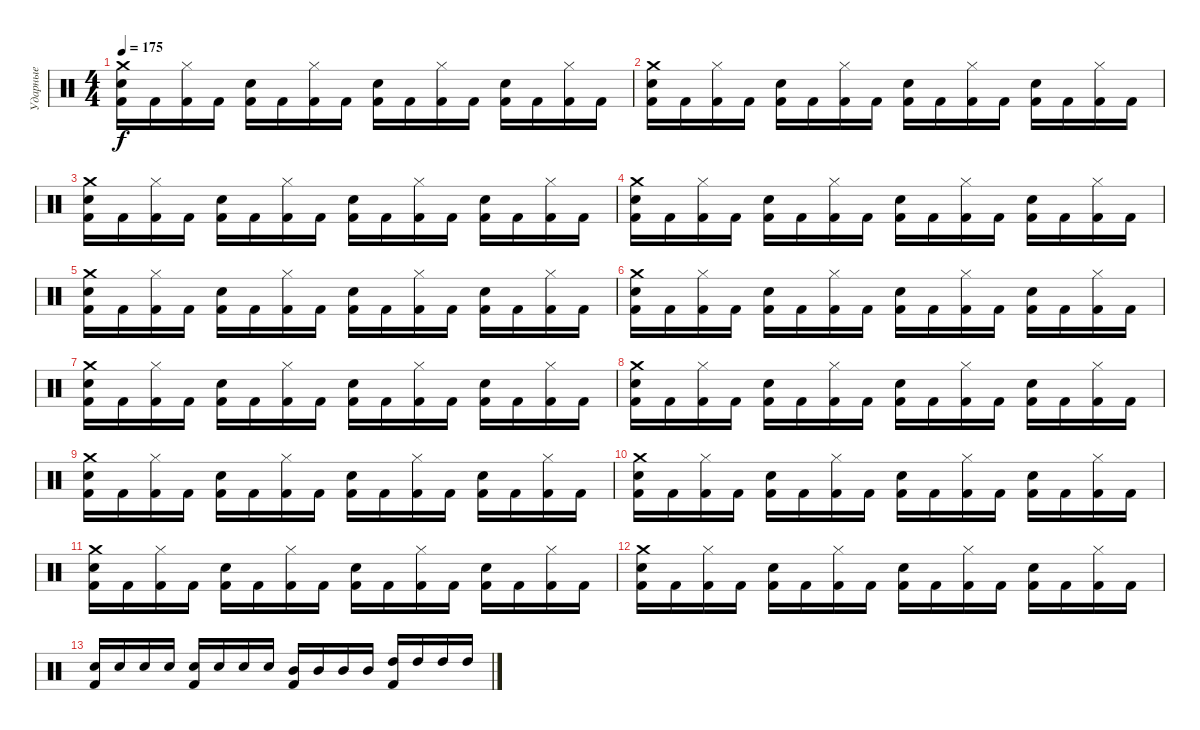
\track ("Ударные" "Ударные") {instrument percussion}
\staff {score}
\articulation defaults
\ts (4 4)
\tempo 175
\clef neutral
\ks c
("Kick (hit) 2" "Snare (hit) 2" "Crash medium (hit)").16{dy f} "Kick (hit) 2".16 ("Kick (hit) 2" "Hi-Hat (closed)").16 "Kick (hit) 2".16 ("Kick (hit) 2" "Snare (hit) 2").16 "Kick (hit) 2".16 ("Kick (hit) 2" "Hi-Hat (closed)").16 "Kick (hit) 2".16 ("Kick (hit) 2" "Snare (hit) 2").16 "Kick (hit) 2".16 ("Kick (hit) 2" "Hi-Hat (closed)").16 "Kick (hit) 2".16 ("Kick (hit) 2" "Snare (hit) 2").16 "Kick (hit) 2".16 ("Kick (hit) 2" "Hi-Hat (closed)").16 "Kick (hit) 2".16 |
("Kick (hit) 2" "Snare (hit) 2" "Crash medium (hit)").16 "Kick (hit) 2".16 ("Kick (hit) 2" "Hi-Hat (closed)").16 "Kick (hit) 2".16 ("Kick (hit) 2" "Snare (hit) 2").16 "Kick (hit) 2".16 ("Kick (hit) 2" "Hi-Hat (closed)").16 "Kick (hit) 2".16 ("Kick (hit) 2" "Snare (hit) 2").16 "Kick (hit) 2".16 ("Kick (hit) 2" "Hi-Hat (closed)").16 "Kick (hit) 2".16 ("Kick (hit) 2" "Snare (hit) 2").16 "Kick (hit) 2".16 ("Kick (hit) 2" "Hi-Hat (closed)").16 "Kick (hit) 2".16 |
("Kick (hit) 2" "Snare (hit) 2" "Crash medium (hit)").16 "Kick (hit) 2".16 ("Kick (hit) 2" "Hi-Hat (closed)").16 "Kick (hit) 2".16 ("Kick (hit) 2" "Snare (hit) 2").16 "Kick (hit) 2".16 ("Kick (hit) 2" "Hi-Hat (closed)").16 "Kick (hit) 2".16 ("Kick (hit) 2" "Snare (hit) 2").16 "Kick (hit) 2".16 ("Kick (hit) 2" "Hi-Hat (closed)").16 "Kick (hit) 2".16 ("Kick (hit) 2" "Snare (hit) 2").16 "Kick (hit) 2".16 ("Kick (hit) 2" "Hi-Hat (closed)").16 "Kick (hit) 2".16 |
("Kick (hit) 2" "Snare (hit) 2" "Crash medium (hit)").16 "Kick (hit) 2".16 ("Kick (hit) 2" "Hi-Hat (closed)").16 "Kick (hit) 2".16 ("Kick (hit) 2" "Snare (hit) 2").16 "Kick (hit) 2".16 ("Kick (hit) 2" "Hi-Hat (closed)").16 "Kick (hit) 2".16 ("Kick (hit) 2" "Snare (hit) 2").16 "Kick (hit) 2".16 ("Kick (hit) 2" "Hi-Hat (closed)").16 "Kick (hit) 2".16 ("Kick (hit) 2" "Snare (hit) 2").16 "Kick (hit) 2".16 ("Kick (hit) 2" "Hi-Hat (closed)").16 "Kick (hit) 2".16 |
("Kick (hit) 2" "Snare (hit) 2" "Crash medium (hit)").16 "Kick (hit) 2".16 ("Kick (hit) 2" "Hi-Hat (closed)").16 "Kick (hit) 2".16 ("Kick (hit) 2" "Snare (hit) 2").16 "Kick (hit) 2".16 ("Kick (hit) 2" "Hi-Hat (closed)").16 "Kick (hit) 2".16 ("Kick (hit) 2" "Snare (hit) 2").16 "Kick (hit) 2".16 ("Kick (hit) 2" "Hi-Hat (closed)").16 "Kick (hit) 2".16 ("Kick (hit) 2" "Snare (hit) 2").16 "Kick (hit) 2".16 ("Kick (hit) 2" "Hi-Hat (closed)").16 "Kick (hit) 2".16 |
("Kick (hit) 2" "Snare (hit) 2" "Crash medium (hit)").16 "Kick (hit) 2".16 ("Kick (hit) 2" "Hi-Hat (closed)").16 "Kick (hit) 2".16 ("Kick (hit) 2" "Snare (hit) 2").16 "Kick (hit) 2".16 ("Kick (hit) 2" "Hi-Hat (closed)").16 "Kick (hit) 2".16 ("Kick (hit) 2" "Snare (hit) 2").16 "Kick (hit) 2".16 ("Kick (hit) 2" "Hi-Hat (closed)").16 "Kick (hit) 2".16 ("Kick (hit) 2" "Snare (hit) 2").16 "Kick (hit) 2".16 ("Kick (hit) 2" "Hi-Hat (closed)").16 "Kick (hit) 2".16 |
("Kick (hit) 2" "Snare (hit) 2" "Crash medium (hit)").16 "Kick (hit) 2".16 ("Kick (hit) 2" "Hi-Hat (closed)").16 "Kick (hit) 2".16 ("Kick (hit) 2" "Snare (hit) 2").16 "Kick (hit) 2".16 ("Kick (hit) 2" "Hi-Hat (closed)").16 "Kick (hit) 2".16 ("Kick (hit) 2" "Snare (hit) 2").16 "Kick (hit) 2".16 ("Kick (hit) 2" "Hi-Hat (closed)").16 "Kick (hit) 2".16 ("Kick (hit) 2" "Snare (hit) 2").16 "Kick (hit) 2".16 ("Kick (hit) 2" "Hi-Hat (closed)").16 "Kick (hit) 2".16 |
("Kick (hit) 2" "Snare (hit) 2" "Crash medium (hit)").16 "Kick (hit) 2".16 ("Kick (hit) 2" "Hi-Hat (closed)").16 "Kick (hit) 2".16 ("Kick (hit) 2" "Snare (hit) 2").16 "Kick (hit) 2".16 ("Kick (hit) 2" "Hi-Hat (closed)").16 "Kick (hit) 2".16 ("Kick (hit) 2" "Snare (hit) 2").16 "Kick (hit) 2".16 ("Kick (hit) 2" "Hi-Hat (closed)").16 "Kick (hit) 2".16 ("Kick (hit) 2" "Snare (hit) 2").16 "Kick (hit) 2".16 ("Kick (hit) 2" "Hi-Hat (closed)").16 "Kick (hit) 2".16 |
("Kick (hit) 2" "Snare (hit) 2" "Crash medium (hit)").16 "Kick (hit) 2".16 ("Kick (hit) 2" "Hi-Hat (closed)").16 "Kick (hit) 2".16 ("Kick (hit) 2" "Snare (hit) 2").16 "Kick (hit) 2".16 ("Kick (hit) 2" "Hi-Hat (closed)").16 "Kick (hit) 2".16 ("Kick (hit) 2" "Snare (hit) 2").16 "Kick (hit) 2".16 ("Kick (hit) 2" "Hi-Hat (closed)").16 "Kick (hit) 2".16 ("Kick (hit) 2" "Snare (hit) 2").16 "Kick (hit) 2".16 ("Kick (hit) 2" "Hi-Hat (closed)").16 "Kick (hit) 2".16 |
("Kick (hit) 2" "Snare (hit) 2" "Crash medium (hit)").16 "Kick (hit) 2".16 ("Kick (hit) 2" "Hi-Hat (closed)").16 "Kick (hit) 2".16 ("Kick (hit) 2" "Snare (hit) 2").16 "Kick (hit) 2".16 ("Kick (hit) 2" "Hi-Hat (closed)").16 "Kick (hit) 2".16 ("Kick (hit) 2" "Snare (hit) 2").16 "Kick (hit) 2".16 ("Kick (hit) 2" "Hi-Hat (closed)").16 "Kick (hit) 2".16 ("Kick (hit) 2" "Snare (hit) 2").16 "Kick (hit) 2".16 ("Kick (hit) 2" "Hi-Hat (closed)").16 "Kick (hit) 2".16 |
("Kick (hit) 2" "Snare (hit) 2" "Crash medium (hit)").16 "Kick (hit) 2".16 ("Kick (hit) 2" "Hi-Hat (closed)").16 "Kick (hit) 2".16 ("Kick (hit) 2" "Snare (hit) 2").16 "Kick (hit) 2".16 ("Kick (hit) 2" "Hi-Hat (closed)").16 "Kick (hit) 2".16 ("Kick (hit) 2" "Snare (hit) 2").16 "Kick (hit) 2".16 ("Kick (hit) 2" "Hi-Hat (closed)").16 "Kick (hit) 2".16 ("Kick (hit) 2" "Snare (hit) 2").16 "Kick (hit) 2".16 ("Kick (hit) 2" "Hi-Hat (closed)").16 "Kick (hit) 2".16 |
("Kick (hit) 2" "Snare (hit) 2" "Crash medium (hit)").16 "Kick (hit) 2".16 ("Kick (hit) 2" "Hi-Hat (closed)").16 "Kick (hit) 2".16 ("Kick (hit) 2" "Snare (hit) 2").16 "Kick (hit) 2".16 ("Kick (hit) 2" "Hi-Hat (closed)").16 "Kick (hit) 2".16 ("Kick (hit) 2" "Snare (hit) 2").16 "Kick (hit) 2".16 ("Kick (hit) 2" "Hi-Hat (closed)").16 "Kick (hit) 2".16 ("Kick (hit) 2" "Snare (hit) 2").16 "Kick (hit) 2".16 ("Kick (hit) 2" "Hi-Hat (closed)").16 "Kick (hit) 2".16 |
("Kick (hit) 2" "Snare (hit) 2").16 "Snare (hit) 2".16 "Snare (hit) 2".16 "Snare (hit) 2".16 ("Kick (hit) 2" "Electric Snare (hit)").16 "Electric Snare (hit)".16 "Electric Snare (hit)".16 "Electric Snare (hit)".16 ("Kick (hit) 2" "Mid Tom (hit)").16 "Mid Tom (hit)".16 "Mid Tom (hit)".16 "Mid Tom (hit)".16 ("Kick (hit) 2" "High Tom (hit)").16 "High Tom (hit)".16 "High Tom (hit)".16 "High Tom (hit)".16
